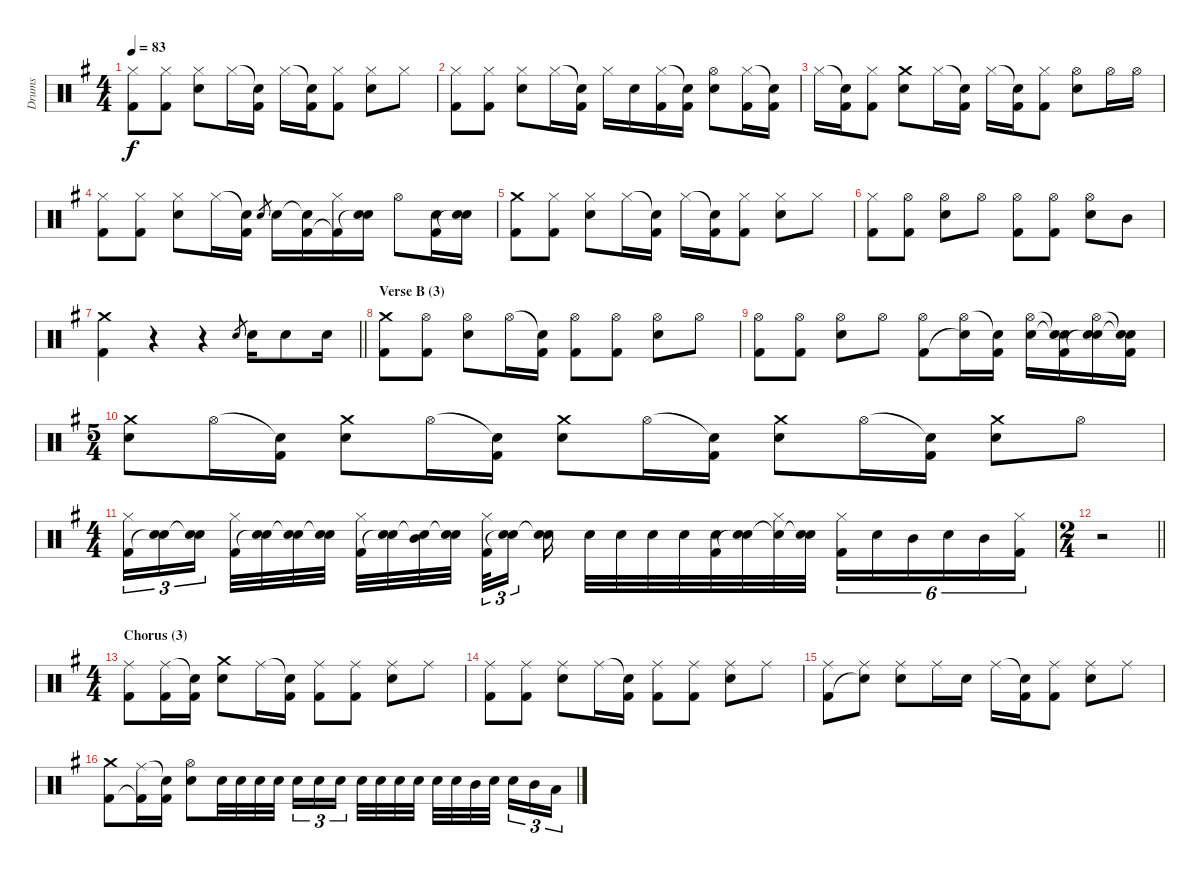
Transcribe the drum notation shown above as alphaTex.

\track ("Drums" "Drums") {instrument percussion}
\staff {score}
\articulation defaults
\ts (4 4)
\tempo 83
\clef neutral
\ks eminor
("Hi-Hat (closed)" "Kick (hit) 2").8{dy f} ("Hi-Hat (closed)" "Kick (hit) 2").8 ("Hi-Hat (closed)" "Electric Snare (hit)").8 "Hi-Hat (closed)".16 ("Snare (hit)"{t} "Kick (hit) 2").16 "Hi-Hat (closed)".16 ("Snare (hit)"{t} "Kick (hit) 2").16 ("Hi-Hat (closed)" "Kick (hit) 2").8 ("Hi-Hat (closed)" "Electric Snare (hit)").8 "Hi-Hat (closed)".8 |
("Hi-Hat (closed)" "Kick (hit) 2").8 ("Hi-Hat (closed)" "Kick (hit) 2").8 ("Hi-Hat (closed)" "Electric Snare (hit)").8 "Hi-Hat (closed)".16 ("Snare (hit)"{t} "Kick (hit) 2").16 "Hi-Hat (closed)".16 "Electric Snare (hit)".16 ("Hi-Hat (closed)" "Kick (hit) 2").16 ("Snare (hit)"{t} "Kick (hit) 2").16 ("Hi-Hat (open)" "Electric Snare (hit)").8 ("Hi-Hat (closed)" "Kick (hit) 2").16 ("Snare (hit)"{t} "Kick (hit) 2").16 |
"Hi-Hat (closed)".16 ("Snare (hit)"{t} "Kick (hit) 2").16 ("Hi-Hat (closed)" "Kick (hit) 2").8 ("Crash medium (hit)" "Electric Snare (hit)").8 "Hi-Hat (closed)".16 ("Snare (hit)"{t} "Kick (hit) 2").16 "Hi-Hat (closed)".16 ("Snare (hit)"{t} "Kick (hit) 2").16 ("Hi-Hat (closed)" "Kick (hit) 2").8 ("Hi-Hat (open)" "Electric Snare (hit)").8 "Hi-Hat (open)".16 "Hi-Hat (open)".16 |
("Hi-Hat (closed)" "Kick (hit) 2").8 ("Hi-Hat (closed)" "Kick (hit) 2").8 ("Hi-Hat (closed)" "Electric Snare (hit)").8 "Hi-Hat (closed)".16 ("Snare (hit)"{t} "Kick (hit) 2").16 "Electric Snare (hit)".8{gr} "Electric Snare (hit)".16 ("Snare (hit)"{t} "Kick (hit) 2").16 ("Hi-Hat (closed)" "Kick (hit) 2"{t}).16 ("Electric Snare (hit)" "Snare (hit)"{t}).16 "Hi-Hat (open)".8 ("Electric Snare (hit)" "Kick (hit) 2").16 ("Electric Snare (hit)" "Snare (hit)"{t}).16 |
("Crash medium (hit)" "Kick (hit) 2").8 ("Hi-Hat (closed)" "Kick (hit) 2").8 ("Hi-Hat (closed)" "Electric Snare (hit)").8 "Hi-Hat (closed)".16 ("Snare (hit)"{t} "Kick (hit) 2").16 "Hi-Hat (closed)".16 ("Snare (hit)"{t} "Kick (hit) 2").16 ("Hi-Hat (closed)" "Kick (hit) 2").8 ("Hi-Hat (closed)" "Electric Snare (hit)").8 "Hi-Hat (closed)".8 |
("Hi-Hat (closed)" "Kick (hit) 2").8 ("Hi-Hat (open)" "Kick (hit) 2").8 ("Hi-Hat (open)" "Electric Snare (hit)").8 "Hi-Hat (open)".8 ("Hi-Hat (open)" "Kick (hit) 2").8 ("Hi-Hat (open)" "Kick (hit) 2").8 ("Hi-Hat (open)" "Electric Snare (hit)").8 "Mid Tom (hit)".8 |
\barLineRight lightlight
("Crash medium (hit)" "Kick (hit) 2").4 r.4 r.4 "Electric Snare (hit)".8{gr} "Electric Snare (hit)".16 "Electric Snare (hit)".8 "Electric Snare (hit)".16 |
\section ("" "Verse B (3)")
("Crash medium (hit)" "Kick (hit) 2").8 ("Hi-Hat (open)" "Kick (hit) 2").8 ("Hi-Hat (open)" "Electric Snare (hit)").8 "Hi-Hat (open)".16 ("Snare (hit)"{t} "Kick (hit) 2").16 ("Hi-Hat (open)" "Kick (hit) 2").8 ("Hi-Hat (open)" "Kick (hit) 2").8 ("Hi-Hat (open)" "Electric Snare (hit)").8 "Hi-Hat (open)".8 |
("Hi-Hat (open)" "Kick (hit) 2").8 ("Hi-Hat (open)" "Kick (hit) 2").8 ("Hi-Hat (open)" "Electric Snare (hit)").8 "Hi-Hat (open)".8 ("Hi-Hat (open)" "Kick (hit) 2").8 ("Hi-Hat (open)" "Snare (hit)"{t}).16 ("Snare (hit)"{t} "Kick (hit) 2").16 ("Hi-Hat (open)" "Electric Snare (hit)").16 ("Snare (hit)"{t} "Snare (hit)"{t} "Kick (hit) 2").16 ("Hi-Hat (open)" "Electric Snare (hit)" "Snare (hit)"{t}).16 ("Snare (hit)"{t} "Snare (hit)"{t} "Kick (hit) 2").16 |
\ts (5 4)
("Crash medium (hit)" "Electric Snare (hit)").8 "Hi-Hat (open)".16 ("Snare (hit)"{t} "Kick (hit) 2").16 ("Crash medium (hit)" "Electric Snare (hit)").8 "Hi-Hat (open)".16 ("Snare (hit)"{t} "Kick (hit) 2").16 ("Crash medium (hit)" "Electric Snare (hit)").8 "Hi-Hat (open)".16 ("Snare (hit)"{t} "Kick (hit) 2").16 ("Crash medium (hit)" "Electric Snare (hit)").8 "Hi-Hat (open)".16 ("Snare (hit)"{t} "Kick (hit) 2").16 ("Crash medium (hit)" "Electric Snare (hit)").8 "Hi-Hat (open)".8 |
\ts (4 4)
("Hi-Hat (closed)" "Kick (hit) 2").16{tu (3 2)} ("Electric Snare (hit)" "Snare (hit)"{t}).16{tu (3 2)} ("Electric Snare (hit)" "Snare (hit)"{t}).16{tu (3 2)} ("Hi-Hat (closed)" "Kick (hit) 2").32 ("Electric Snare (hit)" "Snare (hit)"{t}).32 ("Electric Snare (hit)" "Snare (hit)"{t}).32 ("Electric Snare (hit)" "Snare (hit)"{t}).32 ("Hi-Hat (closed)" "Kick (hit) 2").32 ("Electric Snare (hit)" "Snare (hit)"{t}).32 ("Mid Tom (hit)" "Snare (hit)"{t}).32 ("Electric Snare (hit)" "Snare (hit)"{t}).32 ("Hi-Hat (closed)" "Kick (hit) 2").32{tu (3 2)} ("Electric Snare (hit)" "Snare (hit)"{t}).16{tu (3 2)} ("Electric Snare (hit)" "Snare (hit)"{t}).16 "Electric Snare (hit)".32 "Electric Snare (hit)".32 "Electric Snare (hit)".32 "Electric Snare (hit)".32 ("Electric Snare (hit)" "Kick (hit) 2").32 ("Electric Snare (hit)" "Snare (hit)"{t}).32 ("Hi-Hat (closed)" "Snare (hit)"{t}).32 ("Electric Snare (hit)" "Snare (hit)"{t}).32 ("Hi-Hat (closed)" "Kick (hit) 2").16{tu (6 4)} "Electric Snare (hit)".16{tu (6 4)} "Mid Tom (hit)".16{tu (6 4)} "Electric Snare (hit)".16{tu (6 4)} "Mid Tom (hit)".16{tu (6 4)} ("Hi-Hat (closed)" "Kick (hit) 2").16{tu (6 4)} |
\ts (2 4)
\barLineRight lightlight
r.2 |
\ts (4 4)
\section ("" "Chorus (3)")
("Ride (middle)" "Kick (hit) 2").8 ("Ride (middle)" "Kick (hit) 2").16 ("Snare (hit)"{t} "Kick (hit) 2").16 ("Crash medium (hit)" "Electric Snare (hit)").8 "Ride (middle)".16 ("Snare (hit)"{t} "Kick (hit) 2").16 ("Ride (middle)" "Kick (hit) 2").8 ("Ride (middle)" "Kick (hit) 2").8 ("Ride (middle)" "Electric Snare (hit)").8 "Ride (middle)".8 |
("Ride (middle)" "Kick (hit) 2").8 ("Ride (middle)" "Kick (hit) 2").8 ("Ride (middle)" "Electric Snare (hit)").8 "Ride (middle)".16 ("Snare (hit)"{t} "Kick (hit) 2").16 ("Ride (middle)" "Kick (hit) 2").8 ("Ride (middle)" "Kick (hit) 2").8 ("Ride (middle)" "Electric Snare (hit)").8 "Ride (middle)".8 |
("Ride (middle)" "Kick (hit) 2").8 ("Ride (middle)" "Snare (hit)"{t}).8 ("Ride (middle)" "Electric Snare (hit)").8 "Ride (middle)".16 "Electric Snare (hit)".16 "Ride (middle)".16 ("Snare (hit)"{t} "Kick (hit) 2").16 ("Ride (middle)" "Kick (hit) 2").8 ("Ride (middle)" "Electric Snare (hit)").8 "Ride (middle)".8 |
("Crash medium (hit)" "Kick (hit) 2").8 ("Ride (middle)" "Kick (hit) 2"{t}).16 ("Snare (hit)"{t} "Kick (hit) 2").16 ("Hi-Hat (open)" "Electric Snare (hit)").8 "Electric Snare (hit)".32 "Electric Snare (hit)".32 "Electric Snare (hit)".32 "Electric Snare (hit)".32 "Electric Snare (hit)".16{tu (3 2)} "Electric Snare (hit)".16{tu (3 2)} "Electric Snare (hit)".16{tu (3 2)} "Electric Snare (hit)".32 "Electric Snare (hit)".32 "Electric Snare (hit)".32 "Electric Snare (hit)".32 "Electric Snare (hit)".32 "Electric Snare (hit)".32 "Mid Tom (hit)".32 "Electric Snare (hit)".32 "Electric Snare (hit)".16{tu (3 2)} "Mid Tom (hit)".16{tu (3 2)} "Low Floor Tom (hit)".16{tu (3 2)}
